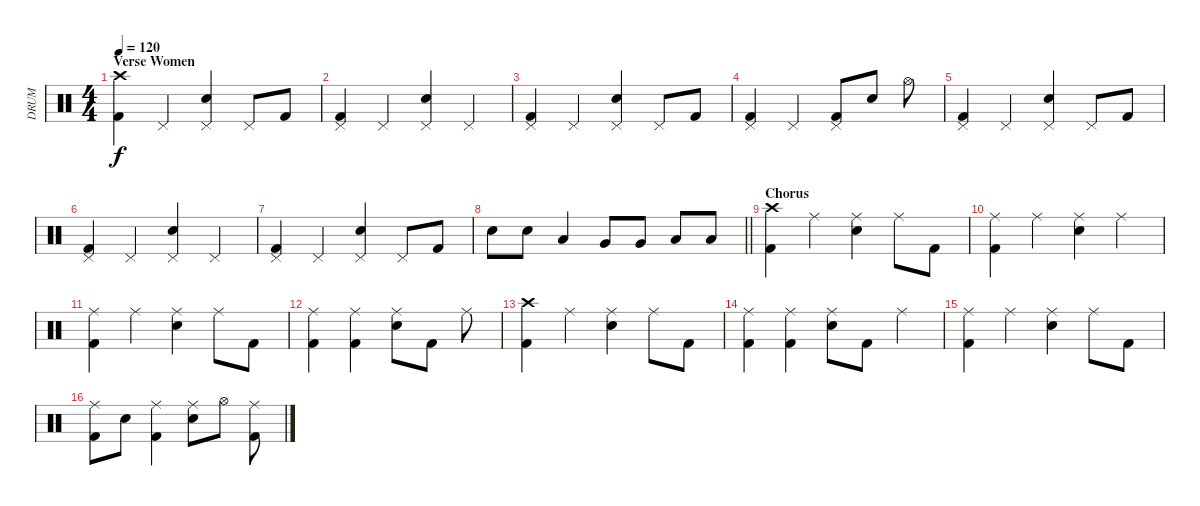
\track ("DRUM" "DRUM") {instrument percussion}
\staff {score}
\articulation defaults
\ts (4 4)
\section ("" "Verse Women")
\tempo 120
\clef neutral
\ks c
("Kick (hit) 2" "Crash high (hit)").4{dy f} "Pedal Hi-Hat (hit)".4 ("Pedal Hi-Hat (hit)" "Electric Snare (hit)").4 "Pedal Hi-Hat (hit)".8 "Kick (hit) 2".8 |
("Pedal Hi-Hat (hit)" "Kick (hit) 2").4 "Pedal Hi-Hat (hit)".4 ("Pedal Hi-Hat (hit)" "Electric Snare (hit)").4 "Pedal Hi-Hat (hit)".4 |
("Kick (hit) 2" "Pedal Hi-Hat (hit)").4 "Pedal Hi-Hat (hit)".4 ("Pedal Hi-Hat (hit)" "Electric Snare (hit)").4 "Pedal Hi-Hat (hit)".8 "Kick (hit) 2".8 |
("Pedal Hi-Hat (hit)" "Kick (hit) 2").4 "Pedal Hi-Hat (hit)".4 ("Pedal Hi-Hat (hit)" "Kick (hit) 2").8 "Electric Snare (hit)".8 "Hi-Hat (open)".8 |
("Kick (hit) 2" "Pedal Hi-Hat (hit)").4 "Pedal Hi-Hat (hit)".4 ("Pedal Hi-Hat (hit)" "Electric Snare (hit)").4 "Pedal Hi-Hat (hit)".8 "Kick (hit) 2".8 |
("Pedal Hi-Hat (hit)" "Kick (hit) 2").4 "Pedal Hi-Hat (hit)".4 ("Pedal Hi-Hat (hit)" "Electric Snare (hit)").4 "Pedal Hi-Hat (hit)".4 |
("Kick (hit) 2" "Pedal Hi-Hat (hit)").4 "Pedal Hi-Hat (hit)".4 ("Pedal Hi-Hat (hit)" "Electric Snare (hit)").4 "Pedal Hi-Hat (hit)".8 "Kick (hit) 2".8 |
\barLineRight lightlight "Electric Snare (hit)".8 "Electric Snare (hit)".8 "Low Floor Tom (hit)".4 "Very Low Tom (hit)".8 "Very Low Tom (hit)".8 "Low Floor Tom (hit)".8 "Low Floor Tom (hit)".8
|
\section ("" "Chorus")
("Kick (hit) 2" "Crash high (hit)").4 "Ride (middle)".4 ("Ride (middle)" "Electric Snare (hit)").4 "Ride (middle)".8 "Kick (hit) 2".8 |
("Ride (middle)" "Kick (hit) 2").4 "Ride (middle)".4 ("Ride (middle)" "Electric Snare (hit)").4 "Ride (middle)".4 |
("Kick (hit) 2" "Ride (middle)").4 "Ride (middle)".4 ("Ride (middle)" "Electric Snare (hit)").4 "Ride (middle)".8 "Kick (hit) 2".8 |
("Ride (middle)" "Kick (hit) 2").4 ("Ride (middle)" "Kick (hit) 2").4 ("Ride (middle)" "Electric Snare (hit)").8 "Kick (hit) 2".8 "Ride (middle)".8 |
("Crash high (hit)" "Kick (hit) 2").4 "Ride (middle)".4 ("Ride (middle)" "Electric Snare (hit)").4 "Ride (middle)".8 "Kick (hit) 2".8 |
("Ride (middle)" "Kick (hit) 2").4 ("Ride (middle)" "Kick (hit) 2").4 ("Ride (middle)" "Electric Snare (hit)").8 "Kick (hit) 2".8 "Ride (middle)".4 |
("Kick (hit) 2" "Ride (middle)").4 "Ride (middle)".4 ("Ride (middle)" "Electric Snare (hit)").4 "Ride (middle)".8 "Kick (hit) 2".8 |
("Kick (hit) 2" "Ride (middle)").8 "Electric Snare (hit)".8 ("Kick (hit) 2" "Ride (middle)").4 ("Electric Snare (hit)" "Ride (middle)").8 "Hi-Hat (open)".8 ("Kick (hit) 2" "Ride (middle)").8
